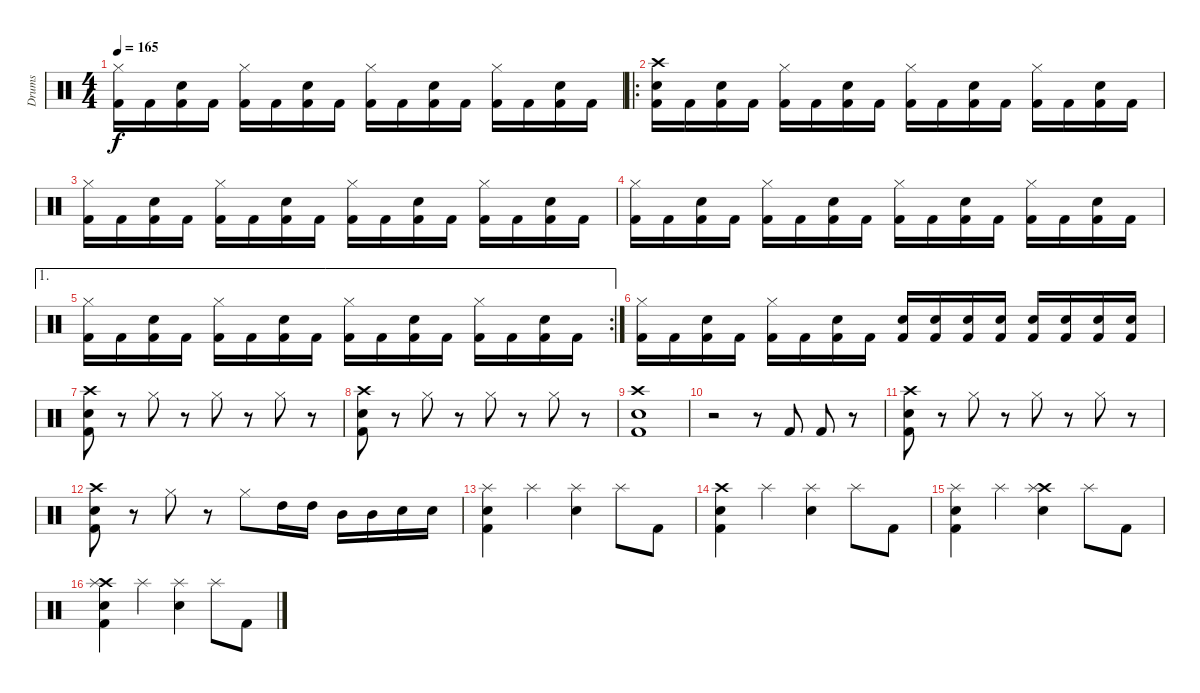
\track ("Drums" "Drums") {instrument percussion}
\staff {score}
\articulation defaults
\ts (4 4)
\tempo 165
\clef neutral
\ks c
("Hi-Hat (closed)" "Kick (hit) 2").16{dy f} "Kick (hit) 2".16 ("Snare (hit) 2" "Kick (hit) 2").16 "Kick (hit) 2".16 ("Hi-Hat (closed)" "Kick (hit) 2").16 "Kick (hit) 2".16 ("Snare (hit) 2" "Kick (hit) 2").16 "Kick (hit) 2".16 ("Hi-Hat (closed)" "Kick (hit) 2").16 "Kick (hit) 2".16 ("Snare (hit) 2" "Kick (hit) 2").16 "Kick (hit) 2".16 ("Hi-Hat (closed)" "Kick (hit) 2").16 "Kick (hit) 2".16 ("Snare (hit) 2" "Kick (hit) 2").16 "Kick (hit) 2".16 |
\ro
("Crash high (hit)" "Snare (hit) 2" "Kick (hit) 2").16 "Kick (hit) 2".16 ("Snare (hit) 2" "Kick (hit) 2").16 "Kick (hit) 2".16 ("Hi-Hat (closed)" "Kick (hit) 2").16 "Kick (hit) 2".16 ("Snare (hit) 2" "Kick (hit) 2").16 "Kick (hit) 2".16 ("Hi-Hat (closed)" "Kick (hit) 2").16 "Kick (hit) 2".16 ("Snare (hit) 2" "Kick (hit) 2").16 "Kick (hit) 2".16 ("Hi-Hat (closed)" "Kick (hit) 2").16 "Kick (hit) 2".16 ("Snare (hit) 2" "Kick (hit) 2").16 "Kick (hit) 2".16 |
("Hi-Hat (closed)" "Kick (hit) 2").16 "Kick (hit) 2".16 ("Snare (hit) 2" "Kick (hit) 2").16 "Kick (hit) 2".16 ("Hi-Hat (closed)" "Kick (hit) 2").16 "Kick (hit) 2".16 ("Snare (hit) 2" "Kick (hit) 2").16 "Kick (hit) 2".16 ("Hi-Hat (closed)" "Kick (hit) 2").16 "Kick (hit) 2".16 ("Snare (hit) 2" "Kick (hit) 2").16 "Kick (hit) 2".16 ("Hi-Hat (closed)" "Kick (hit) 2").16 "Kick (hit) 2".16 ("Snare (hit) 2" "Kick (hit) 2").16 "Kick (hit) 2".16 |
("Hi-Hat (closed)" "Kick (hit) 2").16 "Kick (hit) 2".16 ("Snare (hit) 2" "Kick (hit) 2").16 "Kick (hit) 2".16 ("Hi-Hat (closed)" "Kick (hit) 2").16 "Kick (hit) 2".16 ("Snare (hit) 2" "Kick (hit) 2").16 "Kick (hit) 2".16 ("Hi-Hat (closed)" "Kick (hit) 2").16 "Kick (hit) 2".16 ("Snare (hit) 2" "Kick (hit) 2").16 "Kick (hit) 2".16 ("Hi-Hat (closed)" "Kick (hit) 2").16 "Kick (hit) 2".16 ("Snare (hit) 2" "Kick (hit) 2").16 "Kick (hit) 2".16 |
\ae 1
\rc 2
("Hi-Hat (closed)" "Kick (hit) 2").16 "Kick (hit) 2".16 ("Snare (hit) 2" "Kick (hit) 2").16 "Kick (hit) 2".16 ("Hi-Hat (closed)" "Kick (hit) 2").16 "Kick (hit) 2".16 ("Snare (hit) 2" "Kick (hit) 2").16 "Kick (hit) 2".16 ("Hi-Hat (closed)" "Kick (hit) 2").16 "Kick (hit) 2".16 ("Snare (hit) 2" "Kick (hit) 2").16 "Kick (hit) 2".16 ("Hi-Hat (closed)" "Kick (hit) 2").16 "Kick (hit) 2".16 ("Snare (hit) 2" "Kick (hit) 2").16 "Kick (hit) 2".16 |
("Hi-Hat (closed)" "Kick (hit) 2").16 "Kick (hit) 2".16 ("Snare (hit) 2" "Kick (hit) 2").16 "Kick (hit) 2".16 ("Hi-Hat (closed)" "Kick (hit) 2").16 "Kick (hit) 2".16 ("Snare (hit) 2" "Kick (hit) 2").16 "Kick (hit) 2".16 ("Snare (hit) 2" "Kick (hit) 2").16 ("Snare (hit) 2" "Kick (hit) 2").16 ("Snare (hit) 2" "Kick (hit) 2").16 ("Snare (hit) 2" "Kick (hit) 2").16 ("Snare (hit) 2" "Kick (hit) 2").16 ("Snare (hit) 2" "Kick (hit) 2").16 ("Snare (hit) 2" "Kick (hit) 2").16 ("Snare (hit) 2" "Kick (hit) 2").16 |
("Crash high (hit)" "Snare (hit) 2" "Kick (hit) 2").8 r.8 "Hi-Hat (closed)".8 r.8 "Hi-Hat (closed)".8 r.8 "Hi-Hat (closed)".8 r.8 |
("Crash high (hit)" "Snare (hit) 2" "Kick (hit) 2").8 r.8 "Hi-Hat (closed)".8 r.8 "Hi-Hat (closed)".8 r.8 "Hi-Hat (closed)".8 r.8 |
("Crash high (hit)" "Snare (hit) 2" "Kick (hit) 2").1 |
r.2 r.8 "Kick (hit) 2".8 "Kick (hit) 2".8 r.8 |
("Crash high (hit)" "Snare (hit) 2" "Kick (hit) 2").8 r.8 "Hi-Hat (closed)".8 r.8 "Hi-Hat (closed)".8 r.8 "Hi-Hat (closed)".8 r.8 |
("Crash high (hit)" "Snare (hit) 2" "Kick (hit) 2").8 r.8 "Hi-Hat (closed)".8 r.8 "Hi-Hat (closed)".8 "High Tom (hit)".16 "High Tom (hit)".16 "Mid Tom (hit)".16 "Mid Tom (hit)".16 "Snare (hit) 2".16 "Snare (hit) 2".16 |
("Splash (hit)" "Snare (hit) 2" "Kick (hit) 2").4 "Splash (hit)".4 ("Splash (hit)" "Snare (hit) 2").4 "Splash (hit)".8 "Kick (hit) 2".8 |
("Crash high (hit)" "Snare (hit) 2" "Kick (hit) 2").4 "Splash (hit)".4 ("Splash (hit)" "Snare (hit) 2").4 "Splash (hit)".8 "Kick (hit) 2".8 |
("Splash (hit)" "Snare (hit) 2" "Kick (hit) 2").4 "Splash (hit)".4 ("Crash high (hit)" "Splash (hit)" "Snare (hit) 2").4 "Splash (hit)".8 "Kick (hit) 2".8 |
("Crash high (hit)" "Splash (hit)" "Snare (hit) 2" "Kick (hit) 2").4 "Splash (hit)".4 ("Splash (hit)" "Snare (hit) 2").4 "Splash (hit)".8 "Kick (hit) 2".8
